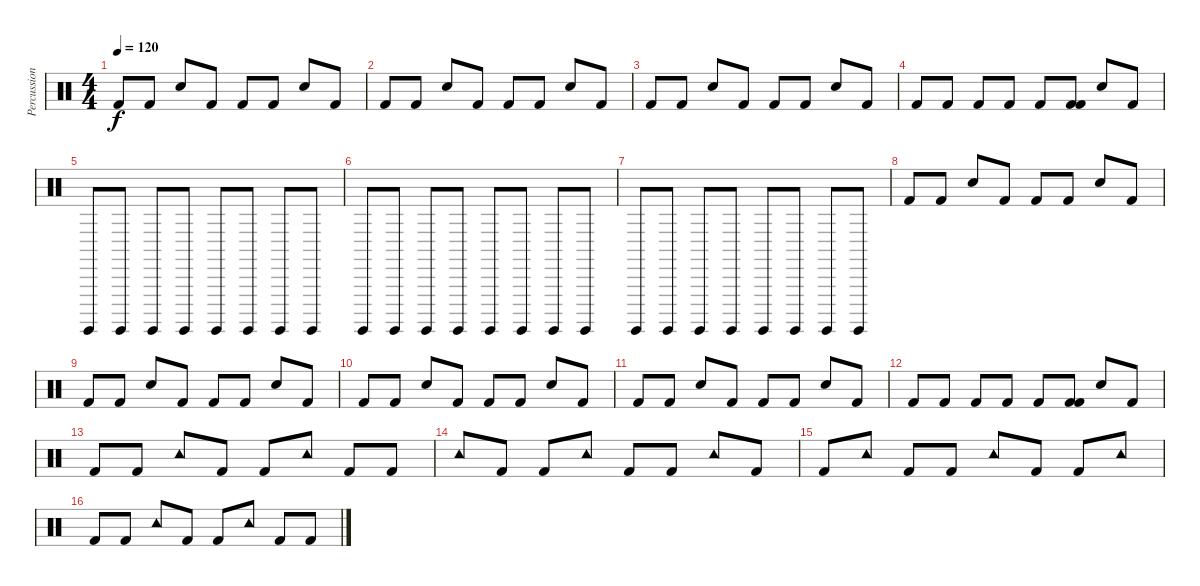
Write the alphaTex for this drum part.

\track ("Percussion" "Percussion") {instrument percussion}
\staff {score}
\articulation defaults
\ts (4 4)
\tempo 120
\clef neutral
\ks c "Kick (hit) 2".8{dy f} "Kick (hit) 2".8 "Electric Snare (hit)".8 "Kick (hit) 2".8 "Kick (hit) 2".8 "Kick (hit) 2".8 "Snare (hit) 2".8 "Kick (hit) 2".8
|
"Kick (hit) 2".8 "Kick (hit) 2".8 "Electric Snare (hit)".8 "Kick (hit) 2".8 "Kick (hit) 2".8 "Kick (hit) 2".8 "Snare (hit) 2".8 "Kick (hit) 2".8 |
"Kick (hit) 2".8 "Kick (hit) 2".8 "Electric Snare (hit)".8 "Kick (hit) 2".8 "Kick (hit) 2".8 "Kick (hit) 2".8 "Snare (hit) 2".8 "Kick (hit) 2".8 |
"Kick (hit) 2".8 "Kick (hit) 2".8 "Kick (hit) 2".8 "Kick (hit) 2".8 "Kick (hit) 2".8 ("Kick (hit) 2" "Kick (hit) 2").8 "Snare (hit) 2".8 "Kick (hit) 2".8 |
"Surdo (hit)".8 "Surdo (hit)".8 "Surdo (hit)".8 "Surdo (hit)".8 "Surdo (hit)".8 "Surdo (hit)".8 "Surdo (hit)".8 "Surdo (hit)".8 |
"Surdo (hit)".8 "Surdo (hit)".8 "Surdo (hit)".8 "Surdo (hit)".8 "Surdo (hit)".8 "Surdo (hit)".8 "Surdo (hit)".8 "Surdo (hit)".8 |
"Surdo (hit)".8 "Surdo (hit)".8 "Surdo (hit)".8 "Surdo (hit)".8 "Surdo (hit)".8 "Surdo (hit)".8 "Surdo (hit)".8 "Surdo (hit)".8 |
"Kick (hit) 2".8 "Kick (hit) 2".8 "Electric Snare (hit)".8 "Kick (hit) 2".8 "Kick (hit) 2".8 "Kick (hit) 2".8 "Snare (hit) 2".8 "Kick (hit) 2".8 |
"Kick (hit) 2".8 "Kick (hit) 2".8 "Electric Snare (hit)".8 "Kick (hit) 2".8 "Kick (hit) 2".8 "Kick (hit) 2".8 "Snare (hit) 2".8 "Kick (hit) 2".8 |
"Kick (hit) 2".8 "Kick (hit) 2".8 "Electric Snare (hit)".8 "Kick (hit) 2".8 "Kick (hit) 2".8 "Kick (hit) 2".8 "Snare (hit) 2".8 "Kick (hit) 2".8 |
"Kick (hit) 2".8 "Kick (hit) 2".8 "Electric Snare (hit)".8 "Kick (hit) 2".8 "Kick (hit) 2".8 "Kick (hit) 2".8 "Snare (hit) 2".8 "Kick (hit) 2".8 |
"Kick (hit) 2".8 "Kick (hit) 2".8 "Kick (hit) 2".8 "Kick (hit) 2".8 "Kick (hit) 2".8 ("Kick (hit) 2" "Kick (hit) 2").8 "Snare (hit) 2".8 "Kick (hit) 2".8 |
"Kick (hit) 2".8 "Kick (hit) 2".8 "Tambourine (hit)".8 "Kick (hit) 2".8 "Kick (hit) 2".8 "Tambourine (hit)".8 "Kick (hit) 2".8 "Kick (hit) 2".8 |
"Tambourine (hit)".8 "Kick (hit) 2".8 "Kick (hit) 2".8 "Tambourine (hit)".8 "Kick (hit) 2".8 "Kick (hit) 2".8 "Tambourine (hit)".8 "Kick (hit) 2".8 |
"Kick (hit) 2".8 "Tambourine (hit)".8 "Kick (hit) 2".8 "Kick (hit) 2".8 "Tambourine (hit)".8 "Kick (hit) 2".8 "Kick (hit) 2".8 "Tambourine (hit)".8 |
"Kick (hit) 2".8 "Kick (hit) 2".8 "Tambourine (hit)".8 "Kick (hit) 2".8 "Kick (hit) 2".8 "Tambourine (hit)".8 "Kick (hit) 2".8 "Kick (hit) 2".8
